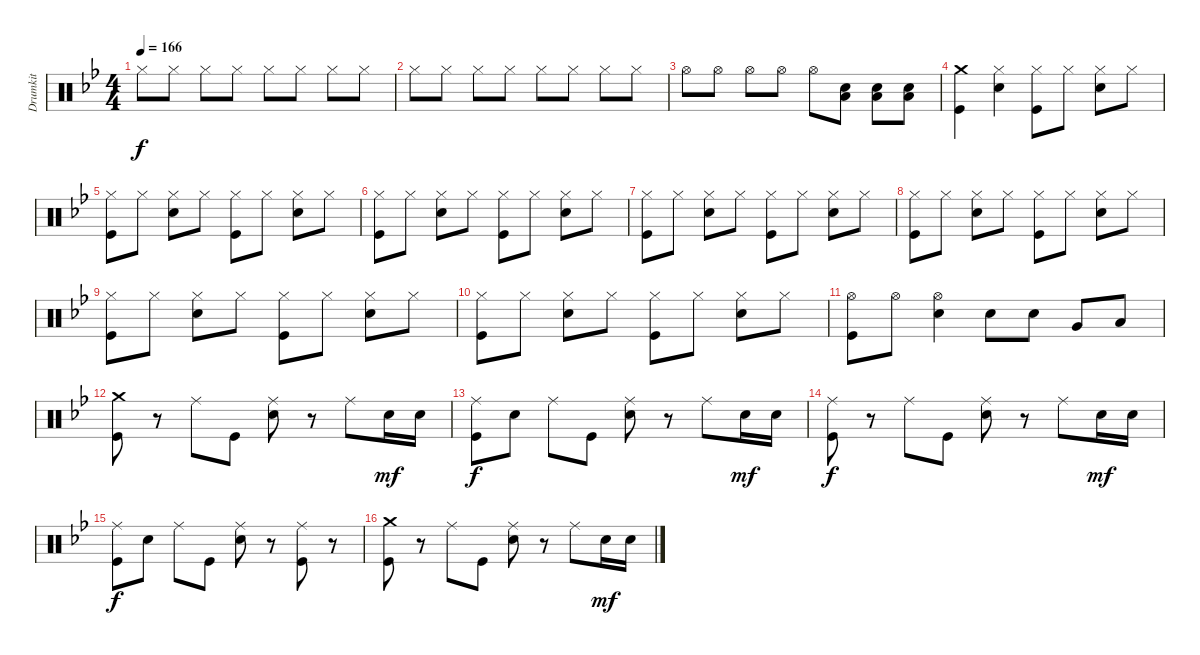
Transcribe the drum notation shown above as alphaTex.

\track ("Drumkit" "Drumkit") {instrument percussion}
\staff {score}
\articulation defaults
\ts (4 4)
\tempo 166
\clef neutral
\ks gminor "Hi-Hat (closed)".8{dy f} "Hi-Hat (closed)".8 "Hi-Hat (closed)".8 "Hi-Hat (closed)".8 "Hi-Hat (closed)".8 "Hi-Hat (closed)".8 "Hi-Hat (closed)".8 "Hi-Hat (closed)".8
|
"Hi-Hat (closed)".8 "Hi-Hat (closed)".8 "Hi-Hat (closed)".8 "Hi-Hat (closed)".8 "Hi-Hat (closed)".8 "Hi-Hat (closed)".8 "Hi-Hat (closed)".8 "Hi-Hat (closed)".8 |
"Hi-Hat (open)".8 "Hi-Hat (open)".8 "Hi-Hat (open)".8 "Hi-Hat (open)".8 "Hi-Hat (open)".8 ("Snare (hit) 2" "Low Floor Tom (hit)").8 ("Snare (hit) 2" "Low Floor Tom (hit)").8 ("Snare (hit) 2" "Low Floor Tom (hit)").8 |
("Crash medium (hit)" "Kick (hit)").4 ("Hi-Hat (closed)" "Snare (hit) 2").4 ("Hi-Hat (closed)" "Kick (hit)").8 "Hi-Hat (closed)".8 ("Hi-Hat (closed)" "Snare (hit) 2").8 "Hi-Hat (closed)".8 |
("Hi-Hat (closed)" "Kick (hit)").8 "Hi-Hat (closed)".8 ("Hi-Hat (closed)" "Snare (hit) 2").8 "Hi-Hat (closed)".8 ("Hi-Hat (closed)" "Kick (hit)").8 "Hi-Hat (closed)".8 ("Hi-Hat (closed)" "Snare (hit) 2").8 "Hi-Hat (closed)".8 |
("Hi-Hat (closed)" "Kick (hit)").8 "Hi-Hat (closed)".8 ("Hi-Hat (closed)" "Snare (hit) 2").8 "Hi-Hat (closed)".8 ("Hi-Hat (closed)" "Kick (hit)").8 "Hi-Hat (closed)".8 ("Hi-Hat (closed)" "Snare (hit) 2").8 "Hi-Hat (closed)".8 |
("Hi-Hat (closed)" "Kick (hit)").8 "Hi-Hat (closed)".8 ("Hi-Hat (closed)" "Snare (hit) 2").8 "Hi-Hat (closed)".8 ("Hi-Hat (closed)" "Kick (hit)").8 "Hi-Hat (closed)".8 ("Hi-Hat (closed)" "Snare (hit) 2").8 "Hi-Hat (closed)".8 |
("Hi-Hat (closed)" "Kick (hit)").8 "Hi-Hat (closed)".8 ("Hi-Hat (closed)" "Snare (hit) 2").8 "Hi-Hat (closed)".8 ("Hi-Hat (closed)" "Kick (hit)").8 "Hi-Hat (closed)".8 ("Hi-Hat (closed)" "Snare (hit) 2").8 "Hi-Hat (closed)".8 |
("Hi-Hat (closed)" "Kick (hit)").8 "Hi-Hat (closed)".8 ("Hi-Hat (closed)" "Snare (hit) 2").8 "Hi-Hat (closed)".8 ("Hi-Hat (closed)" "Kick (hit)").8 "Hi-Hat (closed)".8 ("Hi-Hat (closed)" "Snare (hit) 2").8 "Hi-Hat (closed)".8 |
("Hi-Hat (closed)" "Kick (hit)").8 "Hi-Hat (closed)".8 ("Hi-Hat (closed)" "Snare (hit) 2").8 "Hi-Hat (closed)".8 ("Hi-Hat (closed)" "Kick (hit)").8 "Hi-Hat (closed)".8 ("Hi-Hat (closed)" "Snare (hit) 2").8 "Hi-Hat (closed)".8 |
("Hi-Hat (open)" "Kick (hit)").8 "Hi-Hat (open)".8 ("Hi-Hat (open)" "Snare (hit) 2").4 "Snare (hit) 2".8 "Snare (hit) 2".8 "Very Low Tom (hit)".8 "Low Floor Tom (hit)".8 |
("Crash medium (hit)" "Kick (hit)").8 r.8 "Ride (middle)".8 "Kick (hit)".8 ("Ride (middle)" "Snare (hit) 2").8 r.8 "Ride (middle)".8 "Snare (hit) 2".16{dy mf} "Snare (hit) 2".16 |
("Ride (middle)" "Kick (hit)").8{dy f} "Snare (hit) 2".8 "Ride (middle)".8 "Kick (hit)".8 ("Ride (middle)" "Snare (hit) 2").8 r.8 "Ride (middle)".8 "Snare (hit) 2".16{dy mf} "Snare (hit) 2".16 |
("Kick (hit)" "Ride (middle)").8{dy f} r.8 "Ride (middle)".8 "Kick (hit)".8 ("Ride (middle)" "Snare (hit) 2").8 r.8 "Ride (middle)".8 "Snare (hit) 2".16{dy mf} "Snare (hit) 2".16 |
("Ride (middle)" "Kick (hit)").8{dy f} "Snare (hit) 2".8 "Ride (middle)".8 "Kick (hit)".8 ("Ride (middle)" "Snare (hit) 2").8 r.8 ("Ride (middle)" "Kick (hit)").8 r.8 |
("Crash medium (hit)" "Kick (hit)").8 r.8 "Ride (middle)".8 "Kick (hit)".8 ("Ride (middle)" "Snare (hit) 2").8 r.8 "Ride (middle)".8 "Snare (hit) 2".16{dy mf} "Snare (hit) 2".16
